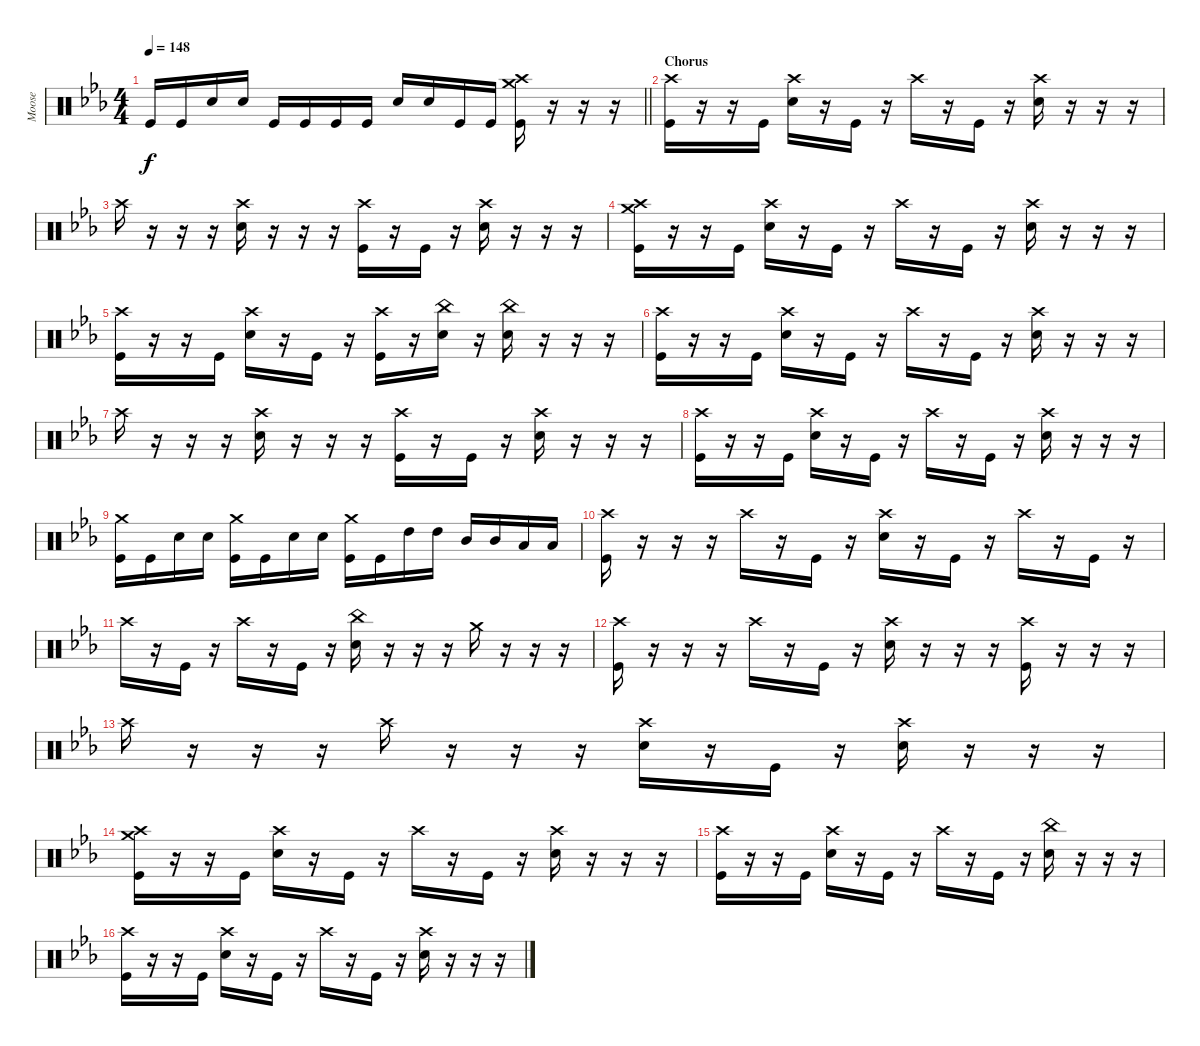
\track ("Moose" "Moose") {instrument percussion}
\staff {score}
\articulation defaults
\ts (4 4)
\tempo 148
\clef neutral
\barLineRight lightlight
\ks eb "Kick (hit)".16{dy f} "Kick (hit)".16 "Snare (hit) 2".16 "Snare (hit) 2".16 "Kick (hit)".16 "Kick (hit)".16 "Kick (hit)".16 "Kick (hit)".16 "Snare (hit) 2".16 "Snare (hit) 2".16 "Kick (hit)".16 "Kick (hit)".16
("Crash high (hit)" "Crash medium (hit)" "Kick (hit)").16 r.16 r.16 r.16 |
\section ("" "Chorus")
("Crash high (hit)" "Kick (hit)").16 r.16 r.16 "Kick (hit)".16 ("Crash high (hit)" "Snare (hit) 2").16 r.16 "Kick (hit)".16 r.16 "Crash high (hit)".16 r.16 "Kick (hit)".16 r.16 ("Crash high (hit)" "Snare (hit) 2").16 r.16 r.16 r.16 |
"Crash high (hit)".16 r.16 r.16 r.16 ("Crash high (hit)" "Snare (hit) 2").16 r.16 r.16 r.16 ("Crash high (hit)" "Kick (hit)").16 r.16 "Kick (hit)".16 r.16 ("Crash high (hit)" "Snare (hit) 2").16 r.16 r.16 r.16 |
("Crash high (hit)" "Crash medium (hit)" "Kick (hit)").16 r.16 r.16 "Kick (hit)".16 ("Crash high (hit)" "Snare (hit) 2").16 r.16 "Kick (hit)".16 r.16 "Crash high (hit)".16 r.16 "Kick (hit)".16 r.16 ("Crash high (hit)" "Snare (hit) 2").16 r.16 r.16 r.16 |
("Crash high (hit)" "Kick (hit)").16 r.16 r.16 "Kick (hit)".16 ("Crash high (hit)" "Snare (hit) 2").16 r.16 "Kick (hit)".16 r.16 ("Crash high (hit)" "Kick (hit)").16 r.16 ("China (hit)" "Snare (hit) 2").16 r.16 ("China (hit)" "Snare (hit) 2").16 r.16 r.16 r.16 |
("Crash high (hit)" "Kick (hit)").16 r.16 r.16 "Kick (hit)".16 ("Crash high (hit)" "Snare (hit) 2").16 r.16 "Kick (hit)".16 r.16 "Crash high (hit)".16 r.16 "Kick (hit)".16 r.16 ("Crash high (hit)" "Snare (hit) 2").16 r.16 r.16 r.16 |
"Crash high (hit)".16 r.16 r.16 r.16 ("Crash high (hit)" "Snare (hit) 2").16 r.16 r.16 r.16 ("Crash high (hit)" "Kick (hit)").16 r.16 "Kick (hit)".16 r.16 ("Crash high (hit)" "Snare (hit) 2").16 r.16 r.16 r.16 |
("Crash high (hit)" "Kick (hit)").16 r.16 r.16 "Kick (hit)".16 ("Crash high (hit)" "Snare (hit) 2").16 r.16 "Kick (hit)".16 r.16 "Crash high (hit)".16 r.16 "Kick (hit)".16 r.16 ("Crash high (hit)" "Snare (hit) 2").16 r.16 r.16 r.16 |
("Crash medium (hit)" "Kick (hit)").16 "Kick (hit)".16 "Snare (hit) 2".16 "Snare (hit) 2".16 ("Crash medium (hit)" "Kick (hit)").16 "Kick (hit)".16 "Snare (hit) 2".16 "Snare (hit) 2".16 ("Crash medium (hit)" "Kick (hit)").16 "Kick (hit)".16 "High Tom (hit)".16 "High Tom (hit)".16 "Mid Tom (hit)".16 "Mid Tom (hit)".16 "Low Tom (hit)".16 "Low Tom (hit)".16 |
("Crash high (hit)" "Kick (hit)").16 r.16 r.16 r.16 "Crash high (hit)".16 r.16 "Kick (hit)".16 r.16 ("Crash high (hit)" "Snare (hit) 2").16 r.16 "Kick (hit)".16 r.16 "Crash high (hit)".16 r.16 "Kick (hit)".16 r.16 |
"Crash high (hit)".16 r.16 "Kick (hit)".16 r.16 "Crash high (hit)".16 r.16 "Kick (hit)".16 r.16 ("China (hit)" "Snare (hit) 2").16 r.16 r.16 r.16 "Crash medium (hit)".16 r.16 r.16 r.16 |
("Crash high (hit)" "Kick (hit)").16 r.16 r.16 r.16 "Crash high (hit)".16 r.16 "Kick (hit)".16 r.16 ("Crash high (hit)" "Snare (hit) 2").16 r.16 r.16 r.16 ("Crash high (hit)" "Kick (hit)").16 r.16 r.16 r.16 |
"Crash high (hit)".16 r.16 r.16 r.16 "Crash high (hit)".16 r.16 r.16 r.16 ("Crash high (hit)" "Snare (hit) 2").16 r.16 "Kick (hit)".16 r.16 ("Crash high (hit)" "Snare (hit) 2").16 r.16 r.16 r.16 |
("Crash high (hit)" "Crash medium (hit)" "Kick (hit)").16 r.16 r.16 "Kick (hit)".16 ("Crash high (hit)" "Snare (hit) 2").16 r.16 "Kick (hit)".16 r.16 "Crash high (hit)".16 r.16 "Kick (hit)".16 r.16 ("Crash high (hit)" "Snare (hit) 2").16 r.16 r.16 r.16 |
("Crash high (hit)" "Kick (hit)").16 r.16 r.16 "Kick (hit)".16 ("Crash high (hit)" "Snare (hit) 2").16 r.16 "Kick (hit)".16 r.16 "Crash high (hit)".16 r.16 "Kick (hit)".16 r.16 ("China (hit)" "Snare (hit) 2").16 r.16 r.16 r.16 |
("Crash high (hit)" "Kick (hit)").16 r.16 r.16 "Kick (hit)".16 ("Crash high (hit)" "Snare (hit) 2").16 r.16 "Kick (hit)".16 r.16 "Crash high (hit)".16 r.16 "Kick (hit)".16 r.16 ("Crash high (hit)" "Snare (hit) 2").16 r.16 r.16 r.16
